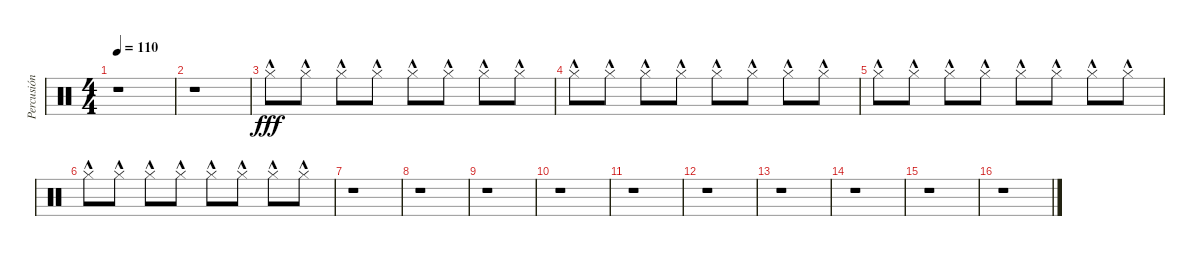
\track ("Percusión" "Percusión") {instrument percussion}
\staff {score}
\articulation defaults
\ts (4 4)
\tempo 110
\clef neutral
\ks c
r.1{dy fff} |
r.1 |
"Hi-Hat (closed)"{hac}.8 "Hi-Hat (closed)"{hac}.8 "Hi-Hat (closed)"{hac}.8 "Hi-Hat (closed)"{hac}.8 "Hi-Hat (closed)"{hac}.8 "Hi-Hat (closed)"{hac}.8 "Hi-Hat (closed)"{hac}.8 "Hi-Hat (closed)"{hac}.8 |
"Hi-Hat (closed)"{hac}.8 "Hi-Hat (closed)"{hac}.8 "Hi-Hat (closed)"{hac}.8 "Hi-Hat (closed)"{hac}.8 "Hi-Hat (closed)"{hac}.8 "Hi-Hat (closed)"{hac}.8 "Hi-Hat (closed)"{hac}.8 "Hi-Hat (closed)"{hac}.8 |
"Hi-Hat (closed)"{hac}.8 "Hi-Hat (closed)"{hac}.8 "Hi-Hat (closed)"{hac}.8 "Hi-Hat (closed)"{hac}.8 "Hi-Hat (closed)"{hac}.8 "Hi-Hat (closed)"{hac}.8 "Hi-Hat (closed)"{hac}.8 "Hi-Hat (closed)"{hac}.8 |
"Hi-Hat (closed)"{hac}.8 "Hi-Hat (closed)"{hac}.8 "Hi-Hat (closed)"{hac}.8 "Hi-Hat (closed)"{hac}.8 "Hi-Hat (closed)"{hac}.8 "Hi-Hat (closed)"{hac}.8 "Hi-Hat (closed)"{hac}.8 "Hi-Hat (closed)"{hac}.8 |
r.1 |
r.1 |
r.1 |
r.1 |
r.1 |
r.1 |
r.1 |
r.1 |
r.1 |
r.1
